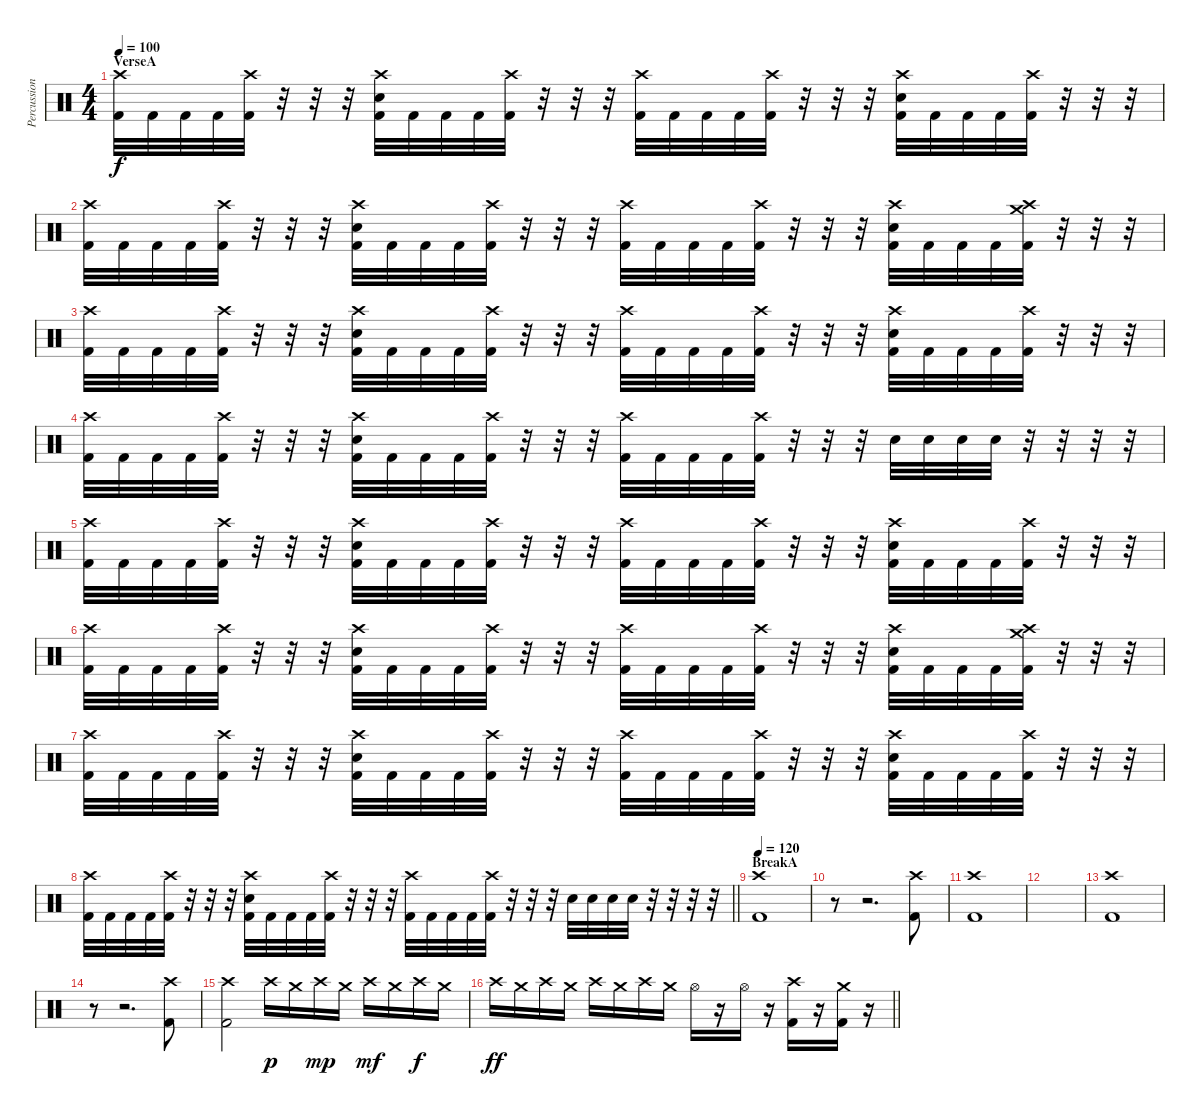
\track ("Percussion" "Percussion") {instrument percussion}
\staff {score}
\articulation defaults
\ts (4 4)
\section ("" "VerseA")
\tempo 100
\clef neutral
\ks c
("Crash high (hit)" "Kick (hit) 2").32{dy f} "Kick (hit) 2".32 "Kick (hit) 2".32 "Kick (hit) 2".32 ("Crash high (hit)" "Kick (hit) 2").32 r.32 r.32 r.32 ("Crash high (hit)" "Snare (hit) 2" "Kick (hit) 2").32 "Kick (hit) 2".32 "Kick (hit) 2".32 "Kick (hit) 2".32 ("Crash high (hit)" "Kick (hit) 2").32 r.32 r.32 r.32 ("Crash high (hit)" "Kick (hit) 2").32 "Kick (hit) 2".32 "Kick (hit) 2".32 "Kick (hit) 2".32 ("Crash high (hit)" "Kick (hit) 2").32 r.32 r.32 r.32 ("Crash high (hit)" "Snare (hit) 2" "Kick (hit) 2").32 "Kick (hit) 2".32 "Kick (hit) 2".32 "Kick (hit) 2".32 ("Crash high (hit)" "Kick (hit) 2").32 r.32 r.32 r.32 |
("Crash high (hit)" "Kick (hit) 2").32 "Kick (hit) 2".32 "Kick (hit) 2".32 "Kick (hit) 2".32 ("Crash high (hit)" "Kick (hit) 2").32 r.32 r.32 r.32 ("Crash high (hit)" "Snare (hit) 2" "Kick (hit) 2").32 "Kick (hit) 2".32 "Kick (hit) 2".32 "Kick (hit) 2".32 ("Crash high (hit)" "Kick (hit) 2").32 r.32 r.32 r.32 ("Crash high (hit)" "Kick (hit) 2").32 "Kick (hit) 2".32 "Kick (hit) 2".32 "Kick (hit) 2".32 ("Crash high (hit)" "Kick (hit) 2").32 r.32 r.32 r.32 ("Crash high (hit)" "Snare (hit) 2" "Kick (hit) 2").32 "Kick (hit) 2".32 "Kick (hit) 2".32 "Kick (hit) 2".32 ("Crash high (hit)" "Crash medium (hit)" "Kick (hit) 2").32 r.32 r.32 r.32 |
("Crash high (hit)" "Kick (hit) 2").32 "Kick (hit) 2".32 "Kick (hit) 2".32 "Kick (hit) 2".32 ("Crash high (hit)" "Kick (hit) 2").32 r.32 r.32 r.32 ("Crash high (hit)" "Snare (hit) 2" "Kick (hit) 2").32 "Kick (hit) 2".32 "Kick (hit) 2".32 "Kick (hit) 2".32 ("Crash high (hit)" "Kick (hit) 2").32 r.32 r.32 r.32 ("Crash high (hit)" "Kick (hit) 2").32 "Kick (hit) 2".32 "Kick (hit) 2".32 "Kick (hit) 2".32 ("Crash high (hit)" "Kick (hit) 2").32 r.32 r.32 r.32 ("Crash high (hit)" "Snare (hit) 2" "Kick (hit) 2").32 "Kick (hit) 2".32 "Kick (hit) 2".32 "Kick (hit) 2".32 ("Crash high (hit)" "Kick (hit) 2").32 r.32 r.32 r.32 |
("Crash high (hit)" "Kick (hit) 2").32 "Kick (hit) 2".32 "Kick (hit) 2".32 "Kick (hit) 2".32 ("Crash high (hit)" "Kick (hit) 2").32 r.32 r.32 r.32 ("Crash high (hit)" "Snare (hit) 2" "Kick (hit) 2").32 "Kick (hit) 2".32 "Kick (hit) 2".32 "Kick (hit) 2".32 ("Crash high (hit)" "Kick (hit) 2").32 r.32 r.32 r.32 ("Crash high (hit)" "Kick (hit) 2").32 "Kick (hit) 2".32 "Kick (hit) 2".32 "Kick (hit) 2".32 ("Crash high (hit)" "Kick (hit) 2").32 r.32 r.32 r.32 "Snare (hit) 2".32 "Snare (hit) 2".32 "Snare (hit) 2".32 "Snare (hit) 2".32 r.32 r.32 r.32 r.32 |
("Crash high (hit)" "Kick (hit) 2").32 "Kick (hit) 2".32 "Kick (hit) 2".32 "Kick (hit) 2".32 ("Crash high (hit)" "Kick (hit) 2").32 r.32 r.32 r.32 ("Crash high (hit)" "Snare (hit) 2" "Kick (hit) 2").32 "Kick (hit) 2".32 "Kick (hit) 2".32 "Kick (hit) 2".32 ("Crash high (hit)" "Kick (hit) 2").32 r.32 r.32 r.32 ("Crash high (hit)" "Kick (hit) 2").32 "Kick (hit) 2".32 "Kick (hit) 2".32 "Kick (hit) 2".32 ("Crash high (hit)" "Kick (hit) 2").32 r.32 r.32 r.32 ("Crash high (hit)" "Snare (hit) 2" "Kick (hit) 2").32 "Kick (hit) 2".32 "Kick (hit) 2".32 "Kick (hit) 2".32 ("Crash high (hit)" "Kick (hit) 2").32 r.32 r.32 r.32 |
("Crash high (hit)" "Kick (hit) 2").32 "Kick (hit) 2".32 "Kick (hit) 2".32 "Kick (hit) 2".32 ("Crash high (hit)" "Kick (hit) 2").32 r.32 r.32 r.32 ("Crash high (hit)" "Snare (hit) 2" "Kick (hit) 2").32 "Kick (hit) 2".32 "Kick (hit) 2".32 "Kick (hit) 2".32 ("Crash high (hit)" "Kick (hit) 2").32 r.32 r.32 r.32 ("Crash high (hit)" "Kick (hit) 2").32 "Kick (hit) 2".32 "Kick (hit) 2".32 "Kick (hit) 2".32 ("Crash high (hit)" "Kick (hit) 2").32 r.32 r.32 r.32 ("Crash high (hit)" "Snare (hit) 2" "Kick (hit) 2").32 "Kick (hit) 2".32 "Kick (hit) 2".32 "Kick (hit) 2".32 ("Crash high (hit)" "Crash medium (hit)" "Kick (hit) 2").32 r.32 r.32 r.32 |
("Crash high (hit)" "Kick (hit) 2").32 "Kick (hit) 2".32 "Kick (hit) 2".32 "Kick (hit) 2".32 ("Crash high (hit)" "Kick (hit) 2").32 r.32 r.32 r.32 ("Crash high (hit)" "Snare (hit) 2" "Kick (hit) 2").32 "Kick (hit) 2".32 "Kick (hit) 2".32 "Kick (hit) 2".32 ("Crash high (hit)" "Kick (hit) 2").32 r.32 r.32 r.32 ("Crash high (hit)" "Kick (hit) 2").32 "Kick (hit) 2".32 "Kick (hit) 2".32 "Kick (hit) 2".32 ("Crash high (hit)" "Kick (hit) 2").32 r.32 r.32 r.32 ("Crash high (hit)" "Snare (hit) 2" "Kick (hit) 2").32 "Kick (hit) 2".32 "Kick (hit) 2".32 "Kick (hit) 2".32 ("Crash high (hit)" "Kick (hit) 2").32 r.32 r.32 r.32 |
\barLineRight lightlight
("Crash high (hit)" "Kick (hit) 2").32 "Kick (hit) 2".32 "Kick (hit) 2".32 "Kick (hit) 2".32 ("Crash high (hit)" "Kick (hit) 2").32 r.32 r.32 r.32 ("Crash high (hit)" "Snare (hit) 2" "Kick (hit) 2").32 "Kick (hit) 2".32 "Kick (hit) 2".32 "Kick (hit) 2".32 ("Crash high (hit)" "Kick (hit) 2").32 r.32 r.32 r.32 ("Crash high (hit)" "Kick (hit) 2").32 "Kick (hit) 2".32 "Kick (hit) 2".32 "Kick (hit) 2".32 ("Crash high (hit)" "Kick (hit) 2").32 r.32 r.32 r.32 "Snare (hit) 2".32 "Snare (hit) 2".32 "Snare (hit) 2".32 "Snare (hit) 2".32 r.32 r.32 r.32 r.32 |
\section ("" "BreakA")
\tempo 120
("Crash high (hit)" "Kick (hit) 2").1 |
r.8 r.2{d} ("Crash high (hit)" "Kick (hit) 2").8 |
("Crash high (hit)" "Kick (hit) 2").1 |
|
("Crash high (hit)" "Kick (hit) 2").1 |
r.8 r.2{d} ("Crash high (hit)" "Kick (hit) 2").8 |
("Crash high (hit)" "Kick (hit) 2").2 "Crash high (hit)".16{dy p} "Crash medium (hit)".16 "Crash high (hit)".16{dy mp} "Crash medium (hit)".16 "Crash high (hit)".16{dy mf} "Crash medium (hit)".16 "Crash high (hit)".16{dy f} "Crash medium (hit)".16 |
\barLineRight lightlight "Crash high (hit)".16{dy ff} "Crash medium (hit)".16 "Crash high (hit)".16 "Crash medium (hit)".16 "Crash high (hit)".16 "Crash medium (hit)".16 "Crash high (hit)".16 "Crash medium (hit)".16 "Hi-Hat (open)".16
r.16 "Hi-Hat (open)".16 r.16 ("Crash high (hit)" "Kick (hit) 2").16 r.16 ("Crash medium (hit)" "Kick (hit) 2").16 r.16
